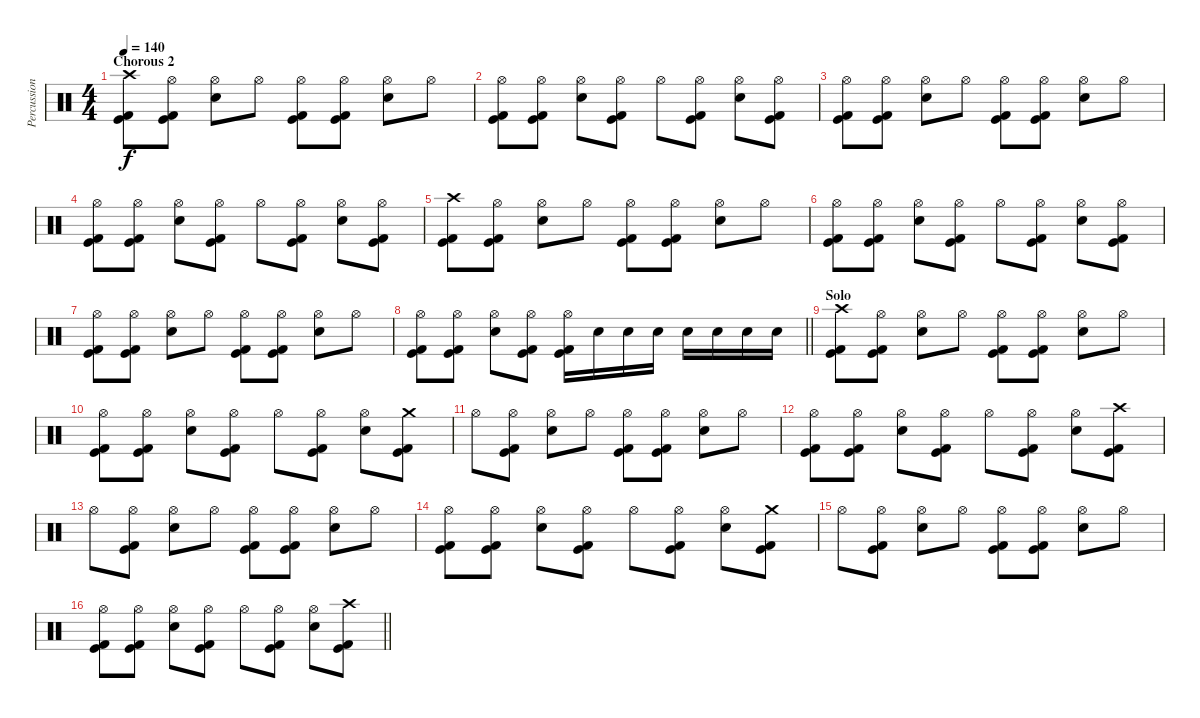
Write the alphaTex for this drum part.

\track ("Percussion" "Percussion") {instrument percussion}
\staff {score}
\articulation defaults
\ts (4 4)
\section ("" "Chorous 2")
\tempo 140
\clef neutral
\ks c
("Crash high (hit)" "Kick (hit)" "Kick (hit) 2").8{dy f} ("Hi-Hat (open)" "Kick (hit)" "Kick (hit) 2").8 ("Hi-Hat (open)" "Electric Snare (hit)").8 "Hi-Hat (open)".8 ("Hi-Hat (open)" "Kick (hit)" "Kick (hit) 2").8 ("Hi-Hat (open)" "Kick (hit)" "Kick (hit) 2").8 ("Hi-Hat (open)" "Electric Snare (hit)").8 "Hi-Hat (open)".8 |
("Hi-Hat (open)" "Kick (hit)" "Kick (hit) 2").8 ("Hi-Hat (open)" "Kick (hit)" "Kick (hit) 2").8 ("Hi-Hat (open)" "Electric Snare (hit)").8 ("Hi-Hat (open)" "Kick (hit)" "Kick (hit) 2").8 "Hi-Hat (open)".8 ("Hi-Hat (open)" "Kick (hit)" "Kick (hit) 2").8 ("Hi-Hat (open)" "Electric Snare (hit)").8 ("Hi-Hat (open)" "Kick (hit)" "Kick (hit) 2").8 |
("Hi-Hat (open)" "Kick (hit)" "Kick (hit) 2").8 ("Hi-Hat (open)" "Kick (hit)" "Kick (hit) 2").8 ("Hi-Hat (open)" "Electric Snare (hit)").8 "Hi-Hat (open)".8 ("Hi-Hat (open)" "Kick (hit)" "Kick (hit) 2").8 ("Hi-Hat (open)" "Kick (hit)" "Kick (hit) 2").8 ("Hi-Hat (open)" "Electric Snare (hit)").8 "Hi-Hat (open)".8 |
("Hi-Hat (open)" "Kick (hit)" "Kick (hit) 2").8 ("Hi-Hat (open)" "Kick (hit)" "Kick (hit) 2").8 ("Hi-Hat (open)" "Electric Snare (hit)").8 ("Hi-Hat (open)" "Kick (hit)" "Kick (hit) 2").8 "Hi-Hat (open)".8 ("Hi-Hat (open)" "Kick (hit)" "Kick (hit) 2").8 ("Hi-Hat (open)" "Electric Snare (hit)").8 ("Hi-Hat (open)" "Kick (hit)" "Kick (hit) 2").8 |
("Crash high (hit)" "Kick (hit)" "Kick (hit) 2").8 ("Hi-Hat (open)" "Kick (hit)" "Kick (hit) 2").8 ("Hi-Hat (open)" "Electric Snare (hit)").8 "Hi-Hat (open)".8 ("Hi-Hat (open)" "Kick (hit)" "Kick (hit) 2").8 ("Hi-Hat (open)" "Kick (hit)" "Kick (hit) 2").8 ("Hi-Hat (open)" "Electric Snare (hit)").8 "Hi-Hat (open)".8 |
("Hi-Hat (open)" "Kick (hit)" "Kick (hit) 2").8 ("Hi-Hat (open)" "Kick (hit)" "Kick (hit) 2").8 ("Hi-Hat (open)" "Electric Snare (hit)").8 ("Hi-Hat (open)" "Kick (hit)" "Kick (hit) 2").8 "Hi-Hat (open)".8 ("Hi-Hat (open)" "Kick (hit)" "Kick (hit) 2").8 ("Hi-Hat (open)" "Electric Snare (hit)").8 ("Hi-Hat (open)" "Kick (hit)" "Kick (hit) 2").8 |
("Hi-Hat (open)" "Kick (hit)" "Kick (hit) 2").8 ("Hi-Hat (open)" "Kick (hit)" "Kick (hit) 2").8 ("Hi-Hat (open)" "Electric Snare (hit)").8 "Hi-Hat (open)".8 ("Hi-Hat (open)" "Kick (hit)" "Kick (hit) 2").8 ("Hi-Hat (open)" "Kick (hit)" "Kick (hit) 2").8 ("Hi-Hat (open)" "Electric Snare (hit)").8 "Hi-Hat (open)".8 |
\barLineRight lightlight
("Hi-Hat (open)" "Kick (hit)" "Kick (hit) 2").8 ("Hi-Hat (open)" "Kick (hit)" "Kick (hit) 2").8 ("Hi-Hat (open)" "Electric Snare (hit)").8 ("Hi-Hat (open)" "Kick (hit)" "Kick (hit) 2").8 ("Hi-Hat (open)" "Kick (hit)" "Kick (hit) 2").16 "Electric Snare (hit)".16 "Electric Snare (hit)".16 "Electric Snare (hit)".16 "Electric Snare (hit)".16 "Electric Snare (hit)".16 "Electric Snare (hit)".16 "Electric Snare (hit)".16 |
\section ("" "Solo")
("Crash high (hit)" "Kick (hit)" "Kick (hit) 2").8 ("Hi-Hat (open)" "Kick (hit)" "Kick (hit) 2").8 ("Hi-Hat (open)" "Electric Snare (hit)").8 "Hi-Hat (open)".8 ("Hi-Hat (open)" "Kick (hit)" "Kick (hit) 2").8 ("Hi-Hat (open)" "Kick (hit)" "Kick (hit) 2").8 ("Hi-Hat (open)" "Electric Snare (hit)").8 "Hi-Hat (open)".8 |
("Hi-Hat (open)" "Kick (hit)" "Kick (hit) 2").8 ("Hi-Hat (open)" "Kick (hit)" "Kick (hit) 2").8 ("Hi-Hat (open)" "Electric Snare (hit)").8 ("Hi-Hat (open)" "Kick (hit)" "Kick (hit) 2").8 "Hi-Hat (open)".8 ("Hi-Hat (open)" "Kick (hit)" "Kick (hit) 2").8 ("Hi-Hat (open)" "Electric Snare (hit)").8 ("Crash medium (hit)" "Kick (hit)" "Kick (hit) 2").8 |
"Hi-Hat (open)".8 ("Hi-Hat (open)" "Kick (hit)" "Kick (hit) 2").8 ("Hi-Hat (open)" "Electric Snare (hit)").8 "Hi-Hat (open)".8 ("Hi-Hat (open)" "Kick (hit)" "Kick (hit) 2").8 ("Hi-Hat (open)" "Kick (hit)" "Kick (hit) 2").8 ("Hi-Hat (open)" "Electric Snare (hit)").8 "Hi-Hat (open)".8 |
("Hi-Hat (open)" "Kick (hit)" "Kick (hit) 2").8 ("Hi-Hat (open)" "Kick (hit)" "Kick (hit) 2").8 ("Hi-Hat (open)" "Electric Snare (hit)").8 ("Hi-Hat (open)" "Kick (hit)" "Kick (hit) 2").8 "Hi-Hat (open)".8 ("Hi-Hat (open)" "Kick (hit)" "Kick (hit) 2").8 ("Hi-Hat (open)" "Electric Snare (hit)").8 ("Crash high (hit)" "Kick (hit)" "Kick (hit) 2").8 |
"Hi-Hat (open)".8 ("Hi-Hat (open)" "Kick (hit)" "Kick (hit) 2").8 ("Hi-Hat (open)" "Electric Snare (hit)").8 "Hi-Hat (open)".8 ("Hi-Hat (open)" "Kick (hit)" "Kick (hit) 2").8 ("Hi-Hat (open)" "Kick (hit)" "Kick (hit) 2").8 ("Hi-Hat (open)" "Electric Snare (hit)").8 "Hi-Hat (open)".8 |
("Hi-Hat (open)" "Kick (hit)" "Kick (hit) 2").8 ("Hi-Hat (open)" "Kick (hit)" "Kick (hit) 2").8 ("Hi-Hat (open)" "Electric Snare (hit)").8 ("Hi-Hat (open)" "Kick (hit)" "Kick (hit) 2").8 "Hi-Hat (open)".8 ("Hi-Hat (open)" "Kick (hit)" "Kick (hit) 2").8 ("Hi-Hat (open)" "Electric Snare (hit)").8 ("Crash medium (hit)" "Kick (hit)" "Kick (hit) 2").8 |
"Hi-Hat (open)".8 ("Hi-Hat (open)" "Kick (hit)" "Kick (hit) 2").8 ("Hi-Hat (open)" "Electric Snare (hit)").8 "Hi-Hat (open)".8 ("Hi-Hat (open)" "Kick (hit)" "Kick (hit) 2").8 ("Hi-Hat (open)" "Kick (hit)" "Kick (hit) 2").8 ("Hi-Hat (open)" "Electric Snare (hit)").8 "Hi-Hat (open)".8 |
\barLineRight lightlight
("Hi-Hat (open)" "Kick (hit)" "Kick (hit) 2").8 ("Hi-Hat (open)" "Kick (hit)" "Kick (hit) 2").8 ("Hi-Hat (open)" "Electric Snare (hit)").8 ("Hi-Hat (open)" "Kick (hit)" "Kick (hit) 2").8 "Hi-Hat (open)".8 ("Hi-Hat (open)" "Kick (hit)" "Kick (hit) 2").8 ("Hi-Hat (open)" "Electric Snare (hit)").8 ("Crash high (hit)" "Kick (hit)" "Kick (hit) 2").8
